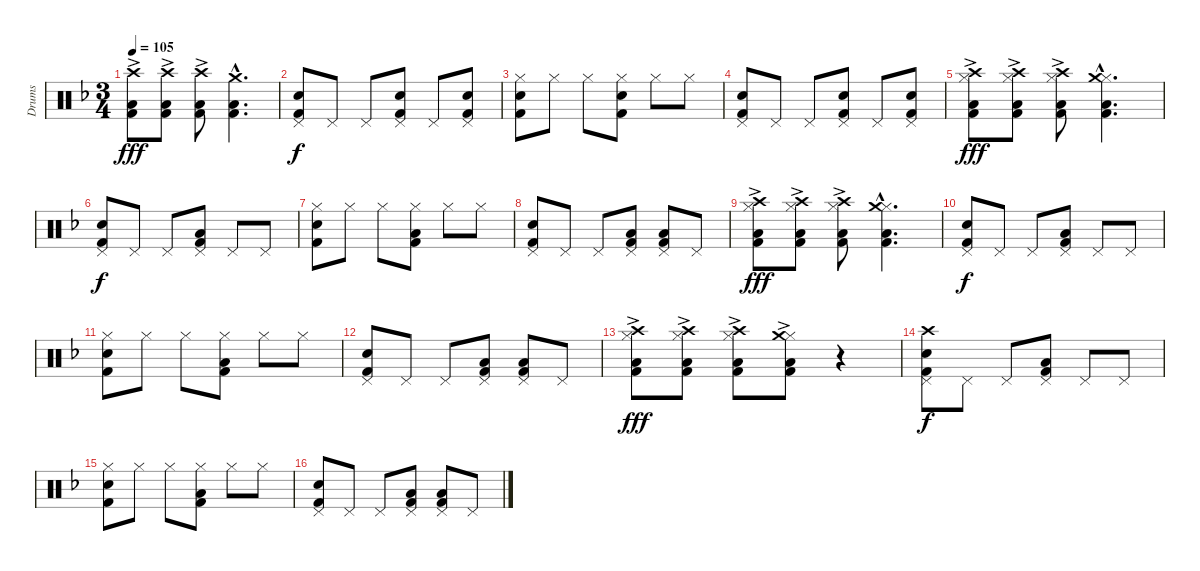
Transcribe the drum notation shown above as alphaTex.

\track ("Drums" "Drums") {instrument percussion}
\staff {score}
\articulation defaults
\ts (3 4)
\tempo 105
\clef neutral
\ks f
("Crash high (hit)" "Low Floor Tom (hit)" "Kick (hit) 2"{ac}).8{dy fff} ("Crash high (hit)" "Low Floor Tom (hit)" "Kick (hit) 2"{ac}).8 ("Crash high (hit)" "Low Floor Tom (hit)" "Kick (hit) 2"{ac}).8 ("Crash medium (hit)"{hac} "Low Floor Tom (hit)"{hac} "Kick (hit) 2"{hac}).4{d} |
("Pedal Hi-Hat (hit)" "Snare (hit) 2" "Kick (hit) 2").8{dy f} "Pedal Hi-Hat (hit)".8 "Pedal Hi-Hat (hit)".8 ("Pedal Hi-Hat (hit)" "Snare (hit) 2" "Kick (hit) 2").8 "Pedal Hi-Hat (hit)".8 ("Pedal Hi-Hat (hit)" "Snare (hit) 2" "Kick (hit) 2").8 |
("Hi-Hat (closed)" "Snare (hit) 2" "Kick (hit) 2").8 "Hi-Hat (closed)".8 "Hi-Hat (closed)".8 ("Hi-Hat (closed)" "Snare (hit) 2" "Kick (hit) 2").8 "Hi-Hat (closed)".8 "Hi-Hat (closed)".8 |
("Pedal Hi-Hat (hit)" "Snare (hit) 2" "Kick (hit) 2").8 "Pedal Hi-Hat (hit)".8 "Pedal Hi-Hat (hit)".8 ("Pedal Hi-Hat (hit)" "Snare (hit) 2" "Kick (hit) 2").8 "Pedal Hi-Hat (hit)".8 ("Pedal Hi-Hat (hit)" "Snare (hit) 2" "Kick (hit) 2").8 |
("Hi-Hat (closed)" "Crash high (hit)" "Low Floor Tom (hit)" "Kick (hit) 2"{ac}).8{dy fff} ("Hi-Hat (closed)" "Crash high (hit)" "Low Floor Tom (hit)" "Kick (hit) 2"{ac}).8 ("Hi-Hat (closed)" "Crash high (hit)" "Low Floor Tom (hit)" "Kick (hit) 2"{ac}).8 ("Hi-Hat (closed)"{hac} "Crash medium (hit)"{hac} "Low Floor Tom (hit)"{hac} "Kick (hit) 2"{hac}).4{d} |
("Pedal Hi-Hat (hit)" "Snare (hit) 2" "Kick (hit) 2").8{dy f} "Pedal Hi-Hat (hit)".8 "Pedal Hi-Hat (hit)".8 ("Pedal Hi-Hat (hit)" "Low Floor Tom (hit)" "Kick (hit) 2").8 "Pedal Hi-Hat (hit)".8 "Pedal Hi-Hat (hit)".8 |
("Hi-Hat (closed)" "Snare (hit) 2" "Kick (hit) 2").8 "Hi-Hat (closed)".8 "Hi-Hat (closed)".8 ("Hi-Hat (closed)" "Low Floor Tom (hit)" "Kick (hit) 2").8 "Hi-Hat (closed)".8 "Hi-Hat (closed)".8 |
("Pedal Hi-Hat (hit)" "Snare (hit) 2" "Kick (hit) 2").8 "Pedal Hi-Hat (hit)".8 "Pedal Hi-Hat (hit)".8 ("Pedal Hi-Hat (hit)" "Low Floor Tom (hit)" "Kick (hit) 2").8 ("Pedal Hi-Hat (hit)" "Low Floor Tom (hit)" "Kick (hit) 2").8 "Pedal Hi-Hat (hit)".8 |
("Hi-Hat (closed)" "Crash high (hit)" "Low Floor Tom (hit)" "Kick (hit) 2"{ac}).8{dy fff} ("Hi-Hat (closed)" "Crash high (hit)" "Low Floor Tom (hit)" "Kick (hit) 2"{ac}).8 ("Hi-Hat (closed)" "Crash high (hit)" "Low Floor Tom (hit)" "Kick (hit) 2"{ac}).8 ("Hi-Hat (closed)"{hac} "Crash medium (hit)"{hac} "Low Floor Tom (hit)"{hac} "Kick (hit) 2"{hac}).4{d} |
("Pedal Hi-Hat (hit)" "Snare (hit) 2" "Kick (hit) 2").8{dy f} "Pedal Hi-Hat (hit)".8 "Pedal Hi-Hat (hit)".8 ("Pedal Hi-Hat (hit)" "Low Floor Tom (hit)" "Kick (hit) 2").8 "Pedal Hi-Hat (hit)".8 "Pedal Hi-Hat (hit)".8 |
("Hi-Hat (closed)" "Snare (hit) 2" "Kick (hit) 2").8 "Hi-Hat (closed)".8 "Hi-Hat (closed)".8 ("Hi-Hat (closed)" "Low Floor Tom (hit)" "Kick (hit) 2").8 "Hi-Hat (closed)".8 "Hi-Hat (closed)".8 |
("Pedal Hi-Hat (hit)" "Snare (hit) 2" "Kick (hit) 2").8 "Pedal Hi-Hat (hit)".8 "Pedal Hi-Hat (hit)".8 ("Pedal Hi-Hat (hit)" "Low Floor Tom (hit)" "Kick (hit) 2").8 ("Pedal Hi-Hat (hit)" "Low Floor Tom (hit)" "Kick (hit) 2").8 "Pedal Hi-Hat (hit)".8 |
("Hi-Hat (closed)" "Crash high (hit)" "Low Floor Tom (hit)" "Kick (hit) 2"{ac}).8{dy fff} ("Hi-Hat (closed)" "Crash high (hit)" "Low Floor Tom (hit)" "Kick (hit) 2"{ac}).8 ("Hi-Hat (closed)" "Crash high (hit)" "Low Floor Tom (hit)" "Kick (hit) 2"{ac}).8 ("Hi-Hat (closed)" "Crash medium (hit)" "Low Floor Tom (hit)" "Kick (hit) 2"{ac}).8 r.4 |
("Pedal Hi-Hat (hit)" "Crash high (hit)" "Snare (hit) 2" "Kick (hit) 2").8{dy f} "Pedal Hi-Hat (hit)".8 "Pedal Hi-Hat (hit)".8 ("Pedal Hi-Hat (hit)" "Low Floor Tom (hit)" "Kick (hit) 2").8 "Pedal Hi-Hat (hit)".8 "Pedal Hi-Hat (hit)".8 |
("Hi-Hat (closed)" "Snare (hit) 2" "Kick (hit) 2").8 "Hi-Hat (closed)".8 "Hi-Hat (closed)".8 ("Hi-Hat (closed)" "Low Floor Tom (hit)" "Kick (hit) 2").8 "Hi-Hat (closed)".8 "Hi-Hat (closed)".8 |
("Pedal Hi-Hat (hit)" "Snare (hit) 2" "Kick (hit) 2").8 "Pedal Hi-Hat (hit)".8 "Pedal Hi-Hat (hit)".8 ("Pedal Hi-Hat (hit)" "Low Floor Tom (hit)" "Kick (hit) 2").8 ("Pedal Hi-Hat (hit)" "Low Floor Tom (hit)" "Kick (hit) 2").8 "Pedal Hi-Hat (hit)".8
